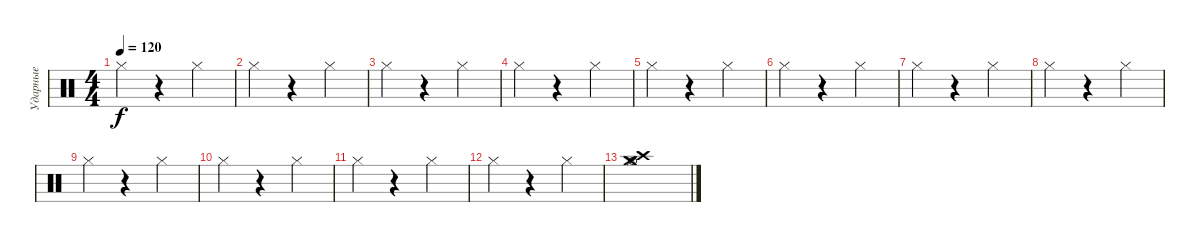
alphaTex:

\track ("Ударные" "Ударные") {instrument percussion}
\staff {score}
\articulation defaults
\ts (4 4)
\tempo 120
\clef neutral
\ks c "Hi-Hat (closed)".4{dy f}
r.4 "Hi-Hat (closed)".4 |
"Hi-Hat (closed)".4 r.4 "Hi-Hat (closed)".4 |
"Hi-Hat (closed)".4 r.4 "Hi-Hat (closed)".4 |
"Hi-Hat (closed)".4 r.4 "Hi-Hat (closed)".4 |
"Hi-Hat (closed)".4 r.4 "Hi-Hat (closed)".4 |
"Hi-Hat (closed)".4 r.4 "Hi-Hat (closed)".4 |
"Hi-Hat (closed)".4 r.4 "Hi-Hat (closed)".4 |
"Hi-Hat (closed)".4 r.4 "Hi-Hat (closed)".4 |
"Hi-Hat (closed)".4 r.4 "Hi-Hat (closed)".4 |
"Hi-Hat (closed)".4 r.4 "Hi-Hat (closed)".4 |
"Hi-Hat (closed)".4 r.4 "Hi-Hat (closed)".4 |
"Hi-Hat (closed)".4 r.4 "Hi-Hat (closed)".4 |
("Crash high (hit)" "Crash medium (hit)" "Hi-Hat (open)" "Hi-Hat (closed)").1
